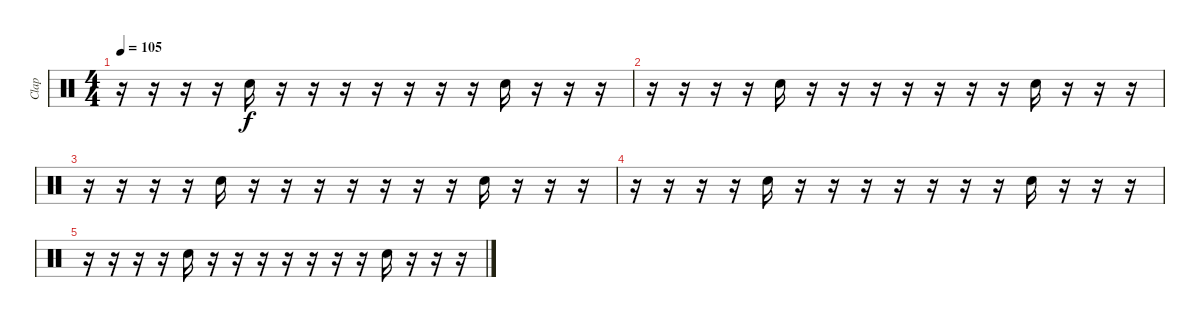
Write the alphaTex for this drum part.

\track ("Clap" "Clap") {instrument percussion}
\staff {score}
\articulation defaults
\ts (4 4)
\tempo 105
\clef neutral
\ks c
r.16{dy f} r.16 r.16 r.16 "Hand Clap (hit)".16 r.16 r.16 r.16 r.16 r.16 r.16 r.16 "Hand Clap (hit)".16 r.16 r.16 r.16 |
r.16 r.16 r.16 r.16 "Hand Clap (hit)".16 r.16 r.16 r.16 r.16 r.16 r.16 r.16 "Hand Clap (hit)".16 r.16 r.16 r.16 |
r.16 r.16 r.16 r.16 "Hand Clap (hit)".16 r.16 r.16 r.16 r.16 r.16 r.16 r.16 "Hand Clap (hit)".16 r.16 r.16 r.16 |
r.16 r.16 r.16 r.16 "Hand Clap (hit)".16 r.16 r.16 r.16 r.16 r.16 r.16 r.16 "Hand Clap (hit)".16 r.16 r.16 r.16 |
r.16 r.16 r.16 r.16 "Hand Clap (hit)".16 r.16 r.16 r.16 r.16 r.16 r.16 r.16 "Hand Clap (hit)".16 r.16 r.16 r.16
